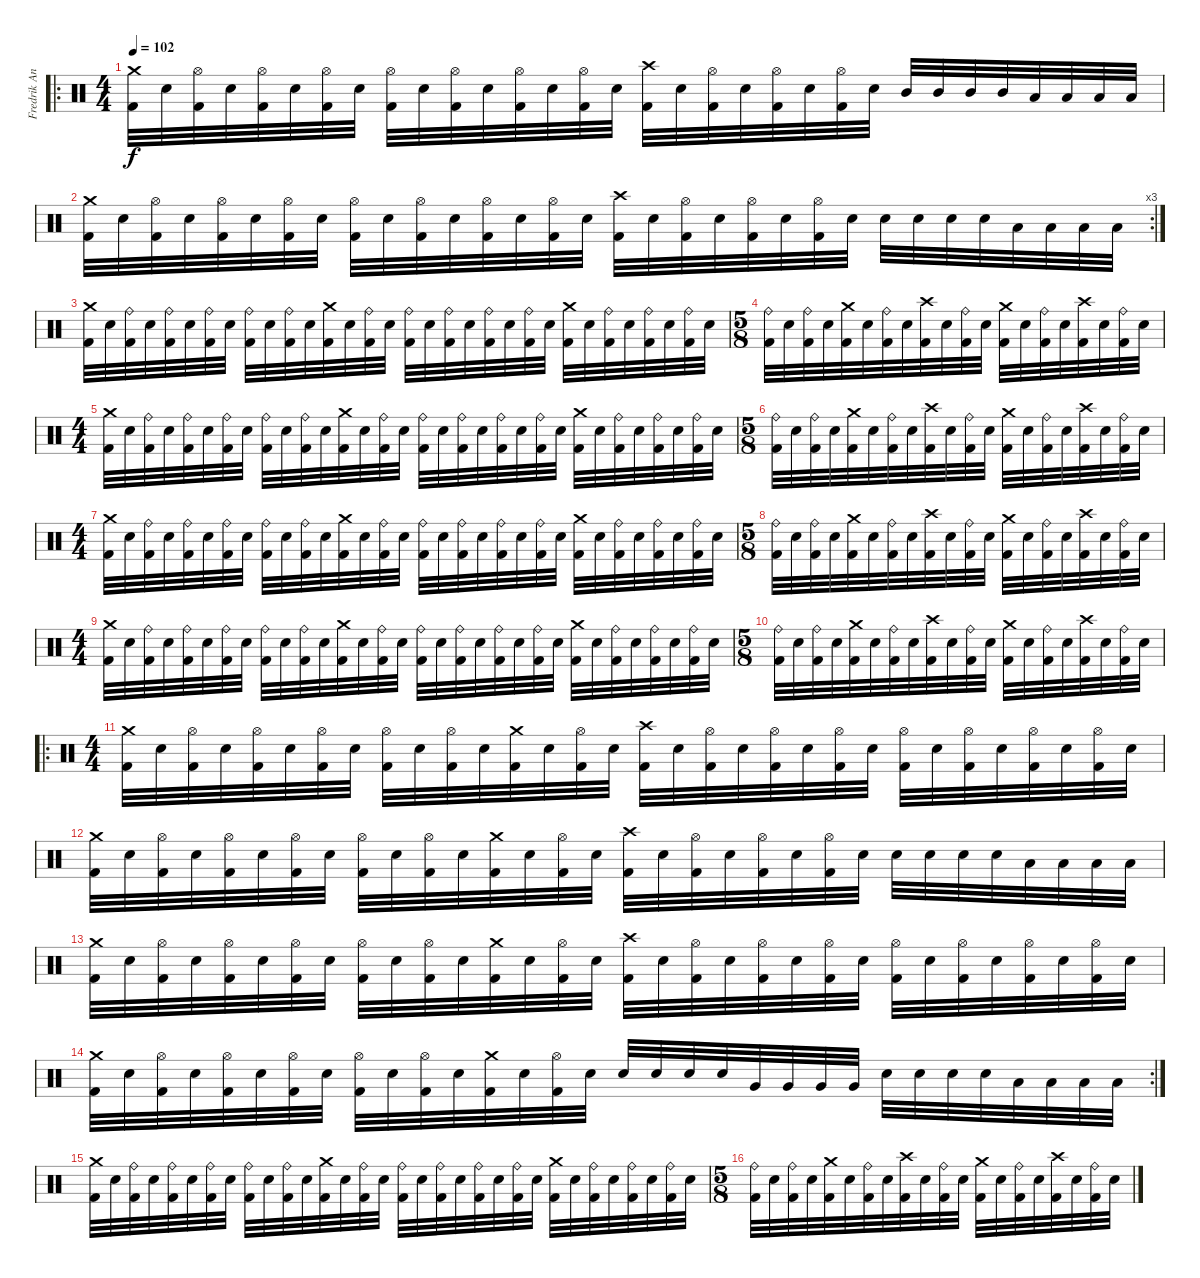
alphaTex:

\track ("Fredrik Andersson" "Fredrik An") {instrument percussion}
\staff {score}
\articulation defaults
\ro
\ts (4 4)
\tempo 102
\clef neutral
\ks c
("Crash medium (hit)" "Kick (hit) 2").32{dy f} "Electric Snare (hit)".32 ("Hi-Hat (open)" "Kick (hit) 2").32 "Electric Snare (hit)".32 ("Hi-Hat (open)" "Kick (hit) 2").32 "Electric Snare (hit)".32 ("Hi-Hat (open)" "Kick (hit) 2").32 "Electric Snare (hit)".32 ("Hi-Hat (open)" "Kick (hit) 2").32 "Electric Snare (hit)".32 ("Hi-Hat (open)" "Kick (hit) 2").32 "Electric Snare (hit)".32 ("Hi-Hat (open)" "Kick (hit) 2").32 "Electric Snare (hit)".32 ("Hi-Hat (open)" "Kick (hit) 2").32 "Electric Snare (hit)".32 ("Crash high (hit)" "Kick (hit) 2").32 "Electric Snare (hit)".32 ("Hi-Hat (open)" "Kick (hit) 2").32 "Electric Snare (hit)".32 ("Hi-Hat (open)" "Kick (hit) 2").32 "Electric Snare (hit)".32 ("Hi-Hat (open)" "Kick (hit) 2").32 "Electric Snare (hit)".32 "Mid Tom (hit)".32 "Mid Tom (hit)".32 "Mid Tom (hit)".32 "Mid Tom (hit)".32 "Low Tom (hit)".32 "Low Tom (hit)".32 "Low Tom (hit)".32 "Low Tom (hit)".32 |
\rc 3
("Crash medium (hit)" "Kick (hit) 2").32 "Electric Snare (hit)".32 ("Hi-Hat (open)" "Kick (hit) 2").32 "Electric Snare (hit)".32 ("Hi-Hat (open)" "Kick (hit) 2").32 "Electric Snare (hit)".32 ("Hi-Hat (open)" "Kick (hit) 2").32 "Electric Snare (hit)".32 ("Hi-Hat (open)" "Kick (hit) 2").32 "Electric Snare (hit)".32 ("Hi-Hat (open)" "Kick (hit) 2").32 "Electric Snare (hit)".32 ("Hi-Hat (open)" "Kick (hit) 2").32 "Electric Snare (hit)".32 ("Hi-Hat (open)" "Kick (hit) 2").32 "Electric Snare (hit)".32 ("Crash high (hit)" "Kick (hit) 2").32 "Electric Snare (hit)".32 ("Hi-Hat (open)" "Kick (hit) 2").32 "Electric Snare (hit)".32 ("Hi-Hat (open)" "Kick (hit) 2").32 "Electric Snare (hit)".32 ("Hi-Hat (open)" "Kick (hit) 2").32 "Electric Snare (hit)".32 "Electric Snare (hit)".32 "Electric Snare (hit)".32 "Electric Snare (hit)".32 "Electric Snare (hit)".32 "Low Tom (hit)".32 "Low Tom (hit)".32 "Low Tom (hit)".32 "Low Tom (hit)".32 |
("Crash medium (hit)" "Kick (hit) 2").32 "Electric Snare (hit)".32 ("Ride (bell)" "Kick (hit) 2").32 "Electric Snare (hit)".32 ("Ride (bell)" "Kick (hit) 2").32 "Electric Snare (hit)".32 ("Ride (bell)" "Kick (hit) 2").32 "Electric Snare (hit)".32 ("Ride (bell)" "Kick (hit) 2").32 "Electric Snare (hit)".32 ("Ride (bell)" "Kick (hit) 2").32 "Electric Snare (hit)".32 ("Crash medium (hit)" "Kick (hit) 2").32 "Electric Snare (hit)".32 ("Ride (bell)" "Kick (hit) 2").32 "Electric Snare (hit)".32 ("Ride (bell)" "Kick (hit) 2").32 "Electric Snare (hit)".32 ("Ride (bell)" "Kick (hit) 2").32 "Electric Snare (hit)".32 ("Ride (bell)" "Kick (hit) 2").32 "Electric Snare (hit)".32 ("Ride (bell)" "Kick (hit) 2").32 "Electric Snare (hit)".32 ("Crash medium (hit)" "Kick (hit) 2").32 "Electric Snare (hit)".32 ("Ride (bell)" "Kick (hit) 2").32 "Electric Snare (hit)".32 ("Ride (bell)" "Kick (hit) 2").32 "Electric Snare (hit)".32 ("Ride (bell)" "Kick (hit) 2").32 "Electric Snare (hit)".32 |
\ts (5 8)
("Ride (bell)" "Kick (hit) 2").32 "Electric Snare (hit)".32 ("Ride (bell)" "Kick (hit) 2").32 "Electric Snare (hit)".32 ("Crash medium (hit)" "Kick (hit) 2").32 "Electric Snare (hit)".32 ("Ride (bell)" "Kick (hit) 2").32 "Electric Snare (hit)".32 ("Crash high (hit)" "Kick (hit) 2").32 "Electric Snare (hit)".32 ("Ride (bell)" "Kick (hit) 2").32 "Electric Snare (hit)".32 ("Crash medium (hit)" "Kick (hit) 2").32 "Electric Snare (hit)".32 ("Ride (bell)" "Kick (hit) 2").32 "Electric Snare (hit)".32 ("Crash high (hit)" "Kick (hit) 2").32 "Electric Snare (hit)".32 ("Ride (bell)" "Kick (hit) 2").32 "Electric Snare (hit)".32 |
\ts (4 4)
("Crash medium (hit)" "Kick (hit) 2").32 "Electric Snare (hit)".32 ("Ride (bell)" "Kick (hit) 2").32 "Electric Snare (hit)".32 ("Ride (bell)" "Kick (hit) 2").32 "Electric Snare (hit)".32 ("Ride (bell)" "Kick (hit) 2").32 "Electric Snare (hit)".32 ("Ride (bell)" "Kick (hit) 2").32 "Electric Snare (hit)".32 ("Ride (bell)" "Kick (hit) 2").32 "Electric Snare (hit)".32 ("Crash medium (hit)" "Kick (hit) 2").32 "Electric Snare (hit)".32 ("Ride (bell)" "Kick (hit) 2").32 "Electric Snare (hit)".32 ("Ride (bell)" "Kick (hit) 2").32 "Electric Snare (hit)".32 ("Ride (bell)" "Kick (hit) 2").32 "Electric Snare (hit)".32 ("Ride (bell)" "Kick (hit) 2").32 "Electric Snare (hit)".32 ("Ride (bell)" "Kick (hit) 2").32 "Electric Snare (hit)".32 ("Crash medium (hit)" "Kick (hit) 2").32 "Electric Snare (hit)".32 ("Ride (bell)" "Kick (hit) 2").32 "Electric Snare (hit)".32 ("Ride (bell)" "Kick (hit) 2").32 "Electric Snare (hit)".32 ("Ride (bell)" "Kick (hit) 2").32 "Electric Snare (hit)".32 |
\ts (5 8)
("Ride (bell)" "Kick (hit) 2").32 "Electric Snare (hit)".32 ("Ride (bell)" "Kick (hit) 2").32 "Electric Snare (hit)".32 ("Crash medium (hit)" "Kick (hit) 2").32 "Electric Snare (hit)".32 ("Ride (bell)" "Kick (hit) 2").32 "Electric Snare (hit)".32 ("Crash high (hit)" "Kick (hit) 2").32 "Electric Snare (hit)".32 ("Ride (bell)" "Kick (hit) 2").32 "Electric Snare (hit)".32 ("Crash medium (hit)" "Kick (hit) 2").32 "Electric Snare (hit)".32 ("Ride (bell)" "Kick (hit) 2").32 "Electric Snare (hit)".32 ("Crash high (hit)" "Kick (hit) 2").32 "Electric Snare (hit)".32 ("Ride (bell)" "Kick (hit) 2").32 "Electric Snare (hit)".32 |
\ts (4 4)
("Crash medium (hit)" "Kick (hit) 2").32 "Electric Snare (hit)".32 ("Ride (bell)" "Kick (hit) 2").32 "Electric Snare (hit)".32 ("Ride (bell)" "Kick (hit) 2").32 "Electric Snare (hit)".32 ("Ride (bell)" "Kick (hit) 2").32 "Electric Snare (hit)".32 ("Ride (bell)" "Kick (hit) 2").32 "Electric Snare (hit)".32 ("Ride (bell)" "Kick (hit) 2").32 "Electric Snare (hit)".32 ("Crash medium (hit)" "Kick (hit) 2").32 "Electric Snare (hit)".32 ("Ride (bell)" "Kick (hit) 2").32 "Electric Snare (hit)".32 ("Ride (bell)" "Kick (hit) 2").32 "Electric Snare (hit)".32 ("Ride (bell)" "Kick (hit) 2").32 "Electric Snare (hit)".32 ("Ride (bell)" "Kick (hit) 2").32 "Electric Snare (hit)".32 ("Ride (bell)" "Kick (hit) 2").32 "Electric Snare (hit)".32 ("Crash medium (hit)" "Kick (hit) 2").32 "Electric Snare (hit)".32 ("Ride (bell)" "Kick (hit) 2").32 "Electric Snare (hit)".32 ("Ride (bell)" "Kick (hit) 2").32 "Electric Snare (hit)".32 ("Ride (bell)" "Kick (hit) 2").32 "Electric Snare (hit)".32 |
\ts (5 8)
("Ride (bell)" "Kick (hit) 2").32 "Electric Snare (hit)".32 ("Ride (bell)" "Kick (hit) 2").32 "Electric Snare (hit)".32 ("Crash medium (hit)" "Kick (hit) 2").32 "Electric Snare (hit)".32 ("Ride (bell)" "Kick (hit) 2").32 "Electric Snare (hit)".32 ("Crash high (hit)" "Kick (hit) 2").32 "Electric Snare (hit)".32 ("Ride (bell)" "Kick (hit) 2").32 "Electric Snare (hit)".32 ("Crash medium (hit)" "Kick (hit) 2").32 "Electric Snare (hit)".32 ("Ride (bell)" "Kick (hit) 2").32 "Electric Snare (hit)".32 ("Crash high (hit)" "Kick (hit) 2").32 "Electric Snare (hit)".32 ("Ride (bell)" "Kick (hit) 2").32 "Electric Snare (hit)".32 |
\ts (4 4)
("Crash medium (hit)" "Kick (hit) 2").32 "Electric Snare (hit)".32 ("Ride (bell)" "Kick (hit) 2").32 "Electric Snare (hit)".32 ("Ride (bell)" "Kick (hit) 2").32 "Electric Snare (hit)".32 ("Ride (bell)" "Kick (hit) 2").32 "Electric Snare (hit)".32 ("Ride (bell)" "Kick (hit) 2").32 "Electric Snare (hit)".32 ("Ride (bell)" "Kick (hit) 2").32 "Electric Snare (hit)".32 ("Crash medium (hit)" "Kick (hit) 2").32 "Electric Snare (hit)".32 ("Ride (bell)" "Kick (hit) 2").32 "Electric Snare (hit)".32 ("Ride (bell)" "Kick (hit) 2").32 "Electric Snare (hit)".32 ("Ride (bell)" "Kick (hit) 2").32 "Electric Snare (hit)".32 ("Ride (bell)" "Kick (hit) 2").32 "Electric Snare (hit)".32 ("Ride (bell)" "Kick (hit) 2").32 "Electric Snare (hit)".32 ("Crash medium (hit)" "Kick (hit) 2").32 "Electric Snare (hit)".32 ("Ride (bell)" "Kick (hit) 2").32 "Electric Snare (hit)".32 ("Ride (bell)" "Kick (hit) 2").32 "Electric Snare (hit)".32 ("Ride (bell)" "Kick (hit) 2").32 "Electric Snare (hit)".32 |
\ts (5 8)
("Ride (bell)" "Kick (hit) 2").32 "Electric Snare (hit)".32 ("Ride (bell)" "Kick (hit) 2").32 "Electric Snare (hit)".32 ("Crash medium (hit)" "Kick (hit) 2").32 "Electric Snare (hit)".32 ("Ride (bell)" "Kick (hit) 2").32 "Electric Snare (hit)".32 ("Crash high (hit)" "Kick (hit) 2").32 "Electric Snare (hit)".32 ("Ride (bell)" "Kick (hit) 2").32 "Electric Snare (hit)".32 ("Crash medium (hit)" "Kick (hit) 2").32 "Electric Snare (hit)".32 ("Ride (bell)" "Kick (hit) 2").32 "Electric Snare (hit)".32 ("Crash high (hit)" "Kick (hit) 2").32 "Electric Snare (hit)".32 ("Ride (bell)" "Kick (hit) 2").32 "Electric Snare (hit)".32 |
\ro
\ts (4 4)
("Crash medium (hit)" "Kick (hit) 2").32 "Electric Snare (hit)".32 ("Hi-Hat (open)" "Kick (hit) 2").32 "Electric Snare (hit)".32 ("Hi-Hat (open)" "Kick (hit) 2").32 "Electric Snare (hit)".32 ("Hi-Hat (open)" "Kick (hit) 2").32 "Electric Snare (hit)".32 ("Hi-Hat (open)" "Kick (hit) 2").32 "Electric Snare (hit)".32 ("Hi-Hat (open)" "Kick (hit) 2").32 "Electric Snare (hit)".32 ("Crash medium (hit)" "Kick (hit) 2").32 "Electric Snare (hit)".32 ("Hi-Hat (open)" "Kick (hit) 2").32 "Electric Snare (hit)".32 ("Crash high (hit)" "Kick (hit) 2").32 "Electric Snare (hit)".32 ("Hi-Hat (open)" "Kick (hit) 2").32 "Electric Snare (hit)".32 ("Hi-Hat (open)" "Kick (hit) 2").32 "Electric Snare (hit)".32 ("Hi-Hat (open)" "Kick (hit) 2").32 "Electric Snare (hit)".32 ("Hi-Hat (open)" "Kick (hit) 2").32 "Electric Snare (hit)".32 ("Hi-Hat (open)" "Kick (hit) 2").32 "Electric Snare (hit)".32 ("Hi-Hat (open)" "Kick (hit) 2").32 "Electric Snare (hit)".32 ("Hi-Hat (open)" "Kick (hit) 2").32 "Electric Snare (hit)".32 |
("Crash medium (hit)" "Kick (hit) 2").32 "Electric Snare (hit)".32 ("Hi-Hat (open)" "Kick (hit) 2").32 "Electric Snare (hit)".32 ("Hi-Hat (open)" "Kick (hit) 2").32 "Electric Snare (hit)".32 ("Hi-Hat (open)" "Kick (hit) 2").32 "Electric Snare (hit)".32 ("Hi-Hat (open)" "Kick (hit) 2").32 "Electric Snare (hit)".32 ("Hi-Hat (open)" "Kick (hit) 2").32 "Electric Snare (hit)".32 ("Crash medium (hit)" "Kick (hit) 2").32 "Electric Snare (hit)".32 ("Hi-Hat (open)" "Kick (hit) 2").32 "Electric Snare (hit)".32 ("Crash high (hit)" "Kick (hit) 2").32 "Electric Snare (hit)".32 ("Hi-Hat (open)" "Kick (hit) 2").32 "Electric Snare (hit)".32 ("Hi-Hat (open)" "Kick (hit) 2").32 "Electric Snare (hit)".32 ("Hi-Hat (open)" "Kick (hit) 2").32 "Electric Snare (hit)".32 "Electric Snare (hit)".32 "Electric Snare (hit)".32 "Electric Snare (hit)".32 "Electric Snare (hit)".32 "Low Tom (hit)".32 "Low Tom (hit)".32 "Low Tom (hit)".32 "Low Tom (hit)".32 |
("Crash medium (hit)" "Kick (hit) 2").32 "Electric Snare (hit)".32 ("Hi-Hat (open)" "Kick (hit) 2").32 "Electric Snare (hit)".32 ("Hi-Hat (open)" "Kick (hit) 2").32 "Electric Snare (hit)".32 ("Hi-Hat (open)" "Kick (hit) 2").32 "Electric Snare (hit)".32 ("Hi-Hat (open)" "Kick (hit) 2").32 "Electric Snare (hit)".32 ("Hi-Hat (open)" "Kick (hit) 2").32 "Electric Snare (hit)".32 ("Crash medium (hit)" "Kick (hit) 2").32 "Electric Snare (hit)".32 ("Hi-Hat (open)" "Kick (hit) 2").32 "Electric Snare (hit)".32 ("Crash high (hit)" "Kick (hit) 2").32 "Electric Snare (hit)".32 ("Hi-Hat (open)" "Kick (hit) 2").32 "Electric Snare (hit)".32 ("Hi-Hat (open)" "Kick (hit) 2").32 "Electric Snare (hit)".32 ("Hi-Hat (open)" "Kick (hit) 2").32 "Electric Snare (hit)".32 ("Hi-Hat (open)" "Kick (hit) 2").32 "Electric Snare (hit)".32 ("Hi-Hat (open)" "Kick (hit) 2").32 "Electric Snare (hit)".32 ("Hi-Hat (open)" "Kick (hit) 2").32 "Electric Snare (hit)".32 ("Hi-Hat (open)" "Kick (hit) 2").32 "Electric Snare (hit)".32 |
\rc 2
("Crash medium (hit)" "Kick (hit) 2").32 "Electric Snare (hit)".32 ("Hi-Hat (open)" "Kick (hit) 2").32 "Electric Snare (hit)".32 ("Hi-Hat (open)" "Kick (hit) 2").32 "Electric Snare (hit)".32 ("Hi-Hat (open)" "Kick (hit) 2").32 "Electric Snare (hit)".32 ("Hi-Hat (open)" "Kick (hit) 2").32 "Electric Snare (hit)".32 ("Hi-Hat (open)" "Kick (hit) 2").32 "Electric Snare (hit)".32 ("Crash medium (hit)" "Kick (hit) 2").32 "Electric Snare (hit)".32 ("Hi-Hat (open)" "Kick (hit) 2").32 "Electric Snare (hit)".32 "Electric Snare (hit)".32 "Electric Snare (hit)".32 "Electric Snare (hit)".32 "Electric Snare (hit)".32 "Very Low Tom (hit)".32 "Very Low Tom (hit)".32 "Very Low Tom (hit)".32 "Very Low Tom (hit)".32 "Electric Snare (hit)".32 "Electric Snare (hit)".32 "Electric Snare (hit)".32 "Electric Snare (hit)".32 "Low Tom (hit)".32 "Low Tom (hit)".32 "Low Tom (hit)".32 "Low Tom (hit)".32 |
("Crash medium (hit)" "Kick (hit) 2").32 "Electric Snare (hit)".32 ("Ride (bell)" "Kick (hit) 2").32 "Electric Snare (hit)".32 ("Ride (bell)" "Kick (hit) 2").32 "Electric Snare (hit)".32 ("Ride (bell)" "Kick (hit) 2").32 "Electric Snare (hit)".32 ("Ride (bell)" "Kick (hit) 2").32 "Electric Snare (hit)".32 ("Ride (bell)" "Kick (hit) 2").32 "Electric Snare (hit)".32 ("Crash medium (hit)" "Kick (hit) 2").32 "Electric Snare (hit)".32 ("Ride (bell)" "Kick (hit) 2").32 "Electric Snare (hit)".32 ("Ride (bell)" "Kick (hit) 2").32 "Electric Snare (hit)".32 ("Ride (bell)" "Kick (hit) 2").32 "Electric Snare (hit)".32 ("Ride (bell)" "Kick (hit) 2").32 "Electric Snare (hit)".32 ("Ride (bell)" "Kick (hit) 2").32 "Electric Snare (hit)".32 ("Crash medium (hit)" "Kick (hit) 2").32 "Electric Snare (hit)".32 ("Ride (bell)" "Kick (hit) 2").32 "Electric Snare (hit)".32 ("Ride (bell)" "Kick (hit) 2").32 "Electric Snare (hit)".32 ("Ride (bell)" "Kick (hit) 2").32 "Electric Snare (hit)".32 |
\ts (5 8)
("Ride (bell)" "Kick (hit) 2").32 "Electric Snare (hit)".32 ("Ride (bell)" "Kick (hit) 2").32 "Electric Snare (hit)".32 ("Crash medium (hit)" "Kick (hit) 2").32 "Electric Snare (hit)".32 ("Ride (bell)" "Kick (hit) 2").32 "Electric Snare (hit)".32 ("Crash high (hit)" "Kick (hit) 2").32 "Electric Snare (hit)".32 ("Ride (bell)" "Kick (hit) 2").32 "Electric Snare (hit)".32 ("Crash medium (hit)" "Kick (hit) 2").32 "Electric Snare (hit)".32 ("Ride (bell)" "Kick (hit) 2").32 "Electric Snare (hit)".32 ("Crash high (hit)" "Kick (hit) 2").32 "Electric Snare (hit)".32 ("Ride (bell)" "Kick (hit) 2").32 "Electric Snare (hit)".32
